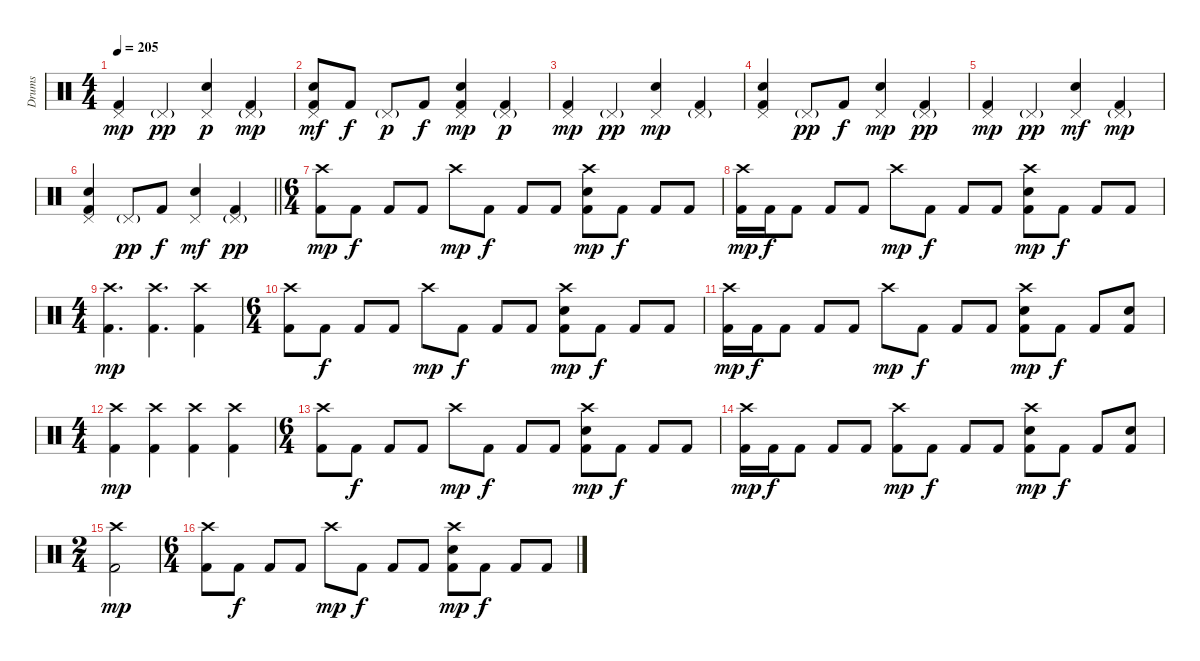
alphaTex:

\track ("Drums" "Drums") {instrument percussion}
\staff {score}
\articulation defaults
\ts (4 4)
\tempo 205
\clef neutral
\ks c
("Pedal Hi-Hat (hit)" "Kick (hit) 2").4{dy mp} "Pedal Hi-Hat (hit)"{g}.4{dy pp} ("Pedal Hi-Hat (hit)" "Hand Clap (hit)").4{dy p} ("Pedal Hi-Hat (hit)"{g} "Kick (hit) 2").4{dy mp} |
("Pedal Hi-Hat (hit)" "Electric Snare (hit)" "Kick (hit) 2").8{dy mf} "Kick (hit) 2".8{dy f} "Pedal Hi-Hat (hit)"{g}.8{dy p} "Kick (hit) 2".8{dy f} ("Pedal Hi-Hat (hit)" "Hand Clap (hit)" "Kick (hit) 2").4{dy mp} ("Pedal Hi-Hat (hit)"{g} "Kick (hit) 2").4{dy p} |
("Pedal Hi-Hat (hit)" "Kick (hit) 2").4{dy mp} "Pedal Hi-Hat (hit)"{g}.4{dy pp} ("Pedal Hi-Hat (hit)" "Hand Clap (hit)").4{dy mp} ("Pedal Hi-Hat (hit)"{g} "Kick (hit) 2").4 |
("Pedal Hi-Hat (hit)" "Electric Snare (hit)" "Kick (hit) 2").4 "Pedal Hi-Hat (hit)"{g}.8{dy pp} "Kick (hit) 2".8{dy f} ("Pedal Hi-Hat (hit)" "Hand Clap (hit)").4{dy mp} ("Pedal Hi-Hat (hit)"{g} "Kick (hit) 2").4{dy pp} |
("Pedal Hi-Hat (hit)" "Kick (hit) 2").4{dy mp} "Pedal Hi-Hat (hit)"{g}.4{dy pp} ("Pedal Hi-Hat (hit)" "Hand Clap (hit)").4{dy mf} ("Pedal Hi-Hat (hit)"{g} "Kick (hit) 2").4{dy mp} |
\barLineRight lightlight
("Pedal Hi-Hat (hit)" "Electric Snare (hit)" "Kick (hit) 2").4 "Pedal Hi-Hat (hit)"{g}.8{dy pp} "Kick (hit) 2".8{dy f} ("Pedal Hi-Hat (hit)" "Hand Clap (hit)").4{dy mf} ("Pedal Hi-Hat (hit)"{g} "Kick (hit) 2").4{dy pp} |
\ts (6 4)
("Crash high (hit)" "Kick (hit) 2").8{dy mp volume 16} "Kick (hit) 2".8{dy f} "Kick (hit) 2".8 "Kick (hit) 2".8 "Crash high (hit)".8{dy mp} "Kick (hit) 2".8{dy f} "Kick (hit) 2".8 "Kick (hit) 2".8 ("Crash high (hit)" "Electric Snare (hit)" "Kick (hit) 2").8{dy mp} "Kick (hit) 2".8{dy f} "Kick (hit) 2".8 "Kick (hit) 2".8 |
("Crash high (hit)" "Kick (hit) 2").16{dy mp} "Kick (hit) 2".16{dy f} "Kick (hit) 2".8 "Kick (hit) 2".8 "Kick (hit) 2".8 "Crash high (hit)".8{dy mp} "Kick (hit) 2".8{dy f} "Kick (hit) 2".8 "Kick (hit) 2".8 ("Crash high (hit)" "Electric Snare (hit)" "Kick (hit) 2").8{dy mp} "Kick (hit) 2".8{dy f} "Kick (hit) 2".8 "Kick (hit) 2".8 |
\ts (4 4)
("Crash high (hit)" "Kick (hit) 2").4{d dy mp} ("Crash high (hit)" "Kick (hit) 2").4{d} ("Crash high (hit)" "Kick (hit) 2").4 |
\ts (6 4)
("Crash high (hit)" "Kick (hit) 2").8 "Kick (hit) 2".8{dy f} "Kick (hit) 2".8 "Kick (hit) 2".8 "Crash high (hit)".8{dy mp} "Kick (hit) 2".8{dy f} "Kick (hit) 2".8 "Kick (hit) 2".8 ("Crash high (hit)" "Electric Snare (hit)" "Kick (hit) 2").8{dy mp} "Kick (hit) 2".8{dy f} "Kick (hit) 2".8 "Kick (hit) 2".8 |
("Crash high (hit)" "Kick (hit) 2").16{dy mp} "Kick (hit) 2".16{dy f} "Kick (hit) 2".8 "Kick (hit) 2".8 "Kick (hit) 2".8 "Crash high (hit)".8{dy mp} "Kick (hit) 2".8{dy f} "Kick (hit) 2".8 "Kick (hit) 2".8 ("Crash high (hit)" "Electric Snare (hit)" "Kick (hit) 2").8{dy mp} "Kick (hit) 2".8{dy f} "Kick (hit) 2".8 ("Electric Snare (hit)" "Kick (hit) 2").8 |
\ts (4 4)
("Crash high (hit)" "Kick (hit) 2").4{dy mp} ("Crash high (hit)" "Kick (hit) 2").4 ("Crash high (hit)" "Kick (hit) 2").4 ("Crash high (hit)" "Kick (hit) 2").4 |
\ts (6 4)
("Crash high (hit)" "Kick (hit) 2").8 "Kick (hit) 2".8{dy f} "Kick (hit) 2".8 "Kick (hit) 2".8 "Crash high (hit)".8{dy mp} "Kick (hit) 2".8{dy f} "Kick (hit) 2".8 "Kick (hit) 2".8 ("Crash high (hit)" "Electric Snare (hit)" "Kick (hit) 2").8{dy mp} "Kick (hit) 2".8{dy f} "Kick (hit) 2".8 "Kick (hit) 2".8 |
("Crash high (hit)" "Kick (hit) 2").16{dy mp} "Kick (hit) 2".16{dy f} "Kick (hit) 2".8 "Kick (hit) 2".8 "Kick (hit) 2".8 ("Crash high (hit)" "Kick (hit) 2").8{dy mp} "Kick (hit) 2".8{dy f} "Kick (hit) 2".8 "Kick (hit) 2".8 ("Crash high (hit)" "Electric Snare (hit)" "Kick (hit) 2").8{dy mp} "Kick (hit) 2".8{dy f} "Kick (hit) 2".8 ("Electric Snare (hit)" "Kick (hit) 2").8 |
\ts (2 4)
("Crash high (hit)" "Kick (hit) 2").2{dy mp} |
\ts (6 4)
("Crash high (hit)" "Kick (hit) 2").8 "Kick (hit) 2".8{dy f} "Kick (hit) 2".8 "Kick (hit) 2".8 "Crash high (hit)".8{dy mp} "Kick (hit) 2".8{dy f} "Kick (hit) 2".8 "Kick (hit) 2".8 ("Crash high (hit)" "Electric Snare (hit)" "Kick (hit) 2").8{dy mp} "Kick (hit) 2".8{dy f} "Kick (hit) 2".8 "Kick (hit) 2".8
